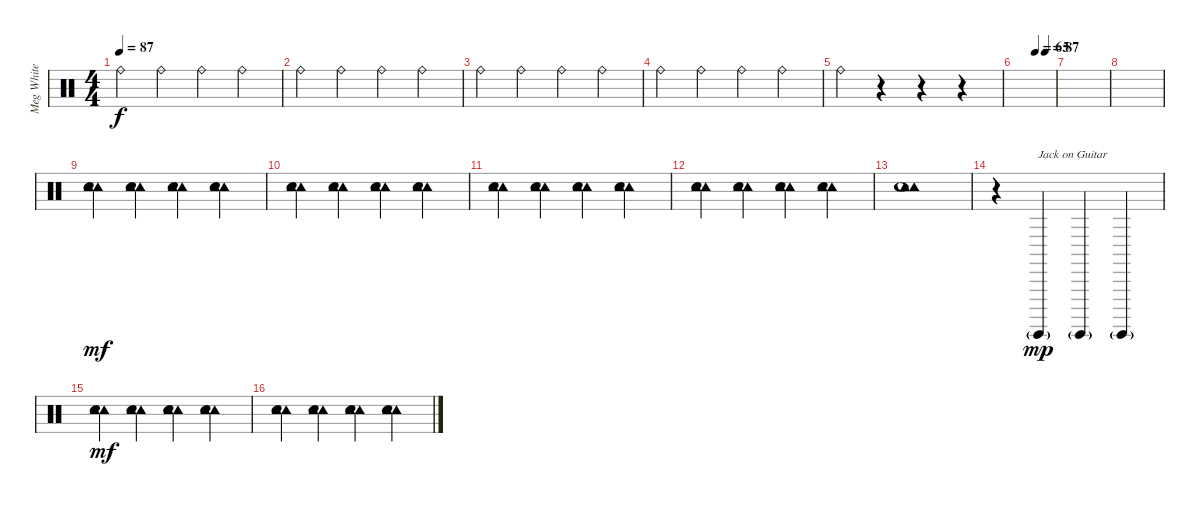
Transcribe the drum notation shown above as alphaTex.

\track ("Meg White - Drums" "Meg White ") {instrument percussion}
\staff {score}
\articulation defaults
\ts (4 4)
\tempo 87
\clef neutral
\ks c "Ride (bell)".4{dy f} "Ride (bell)".4 "Ride (bell)".4 "Ride (bell)".4
|
"Ride (bell)".4 "Ride (bell)".4 "Ride (bell)".4 "Ride (bell)".4 |
"Ride (bell)".4 "Ride (bell)".4 "Ride (bell)".4 "Ride (bell)".4 |
"Ride (bell)".4 "Ride (bell)".4 "Ride (bell)".4 "Ride (bell)".4 |
"Ride (bell)".4 r.4 r.4 r.4 |
\tempo (65 0.5)
\tempo (87 0.75)
|
|
|
("Tambourine (hit)" "Tambourine (hit)" "Snare (hit) 2").4{dy mf} ("Tambourine (hit)" "Tambourine (hit)" "Snare (hit) 2").4 ("Tambourine (hit)" "Tambourine (hit)" "Snare (hit) 2").4 ("Tambourine (hit)" "Tambourine (hit)" "Snare (hit) 2").4 |
("Tambourine (hit)" "Tambourine (hit)" "Snare (hit) 2").4 ("Tambourine (hit)" "Tambourine (hit)" "Snare (hit) 2").4 ("Tambourine (hit)" "Tambourine (hit)" "Snare (hit) 2").4 ("Tambourine (hit)" "Tambourine (hit)" "Snare (hit) 2").4 |
("Tambourine (hit)" "Tambourine (hit)" "Snare (hit) 2").4 ("Tambourine (hit)" "Tambourine (hit)" "Snare (hit) 2").4 ("Tambourine (hit)" "Tambourine (hit)" "Snare (hit) 2").4 ("Tambourine (hit)" "Tambourine (hit)" "Snare (hit) 2").4 |
("Tambourine (hit)" "Tambourine (hit)" "Snare (hit) 2").4 ("Tambourine (hit)" "Tambourine (hit)" "Snare (hit) 2").4 ("Tambourine (hit)" "Tambourine (hit)" "Snare (hit) 2").4 ("Tambourine (hit)" "Tambourine (hit)" "Snare (hit) 2").4 |
("Tambourine (hit)" "Tambourine (hit)" "Snare (hit) 2").1 |
r.4 "Surdo (hit)"{g}.4{txt "Jack on Guitar" dy mp} "Surdo (hit)"{g}.4 "Surdo (hit)"{g}.4 |
("Tambourine (hit)" "Tambourine (hit)" "Snare (hit) 2").4{dy mf} ("Tambourine (hit)" "Tambourine (hit)" "Snare (hit) 2").4 ("Tambourine (hit)" "Tambourine (hit)" "Snare (hit) 2").4 ("Tambourine (hit)" "Tambourine (hit)" "Snare (hit) 2").4 |
("Tambourine (hit)" "Tambourine (hit)" "Snare (hit) 2").4 ("Tambourine (hit)" "Tambourine (hit)" "Snare (hit) 2").4 ("Tambourine (hit)" "Tambourine (hit)" "Snare (hit) 2").4 ("Tambourine (hit)" "Tambourine (hit)" "Snare (hit) 2").4
